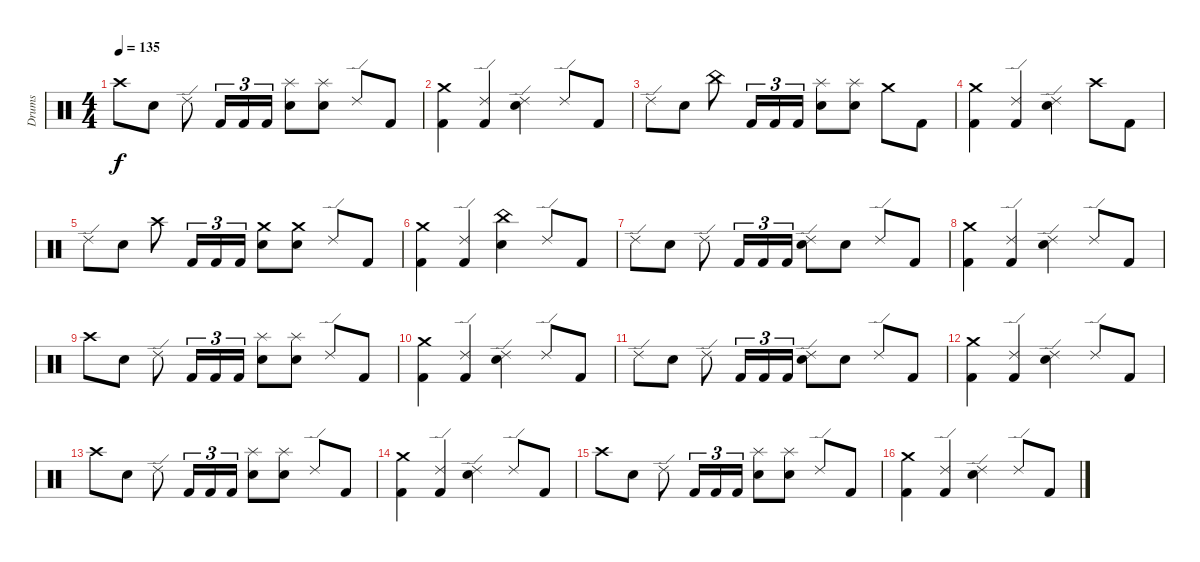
\track ("Drums" "Drums") {instrument percussion}
\staff {score}
\articulation defaults
\ts (4 4)
\tempo 135
\clef neutral
\ks c "Crash high (hit)".8{dy f} "Snare (hit) 2".8 "Ride (edge) 2".8 "Kick (hit) 2".16{tu (3 2)} "Kick (hit) 2".16{tu (3 2)} "Kick (hit) 2".16{tu (3 2)}
("Snare (hit) 2" "Splash (hit)").8 ("Snare (hit) 2" "Splash (hit)").8 "Ride (edge) 2".8 "Kick (hit) 2".8 |
("Kick (hit) 2" "Crash medium (hit)").4 ("Kick (hit) 2" "Ride (edge) 2").4 ("Snare (hit) 2" "Ride (edge) 2").4 "Ride (edge) 2".8 "Kick (hit) 2".8 |
"Ride (edge) 2".8 "Snare (hit) 2".8 "China (hit)".8 "Kick (hit) 2".16{tu (3 2)} "Kick (hit) 2".16{tu (3 2)} "Kick (hit) 2".16{tu (3 2)} ("Snare (hit) 2" "Splash (hit)").8 ("Snare (hit) 2" "Splash (hit)").8 "Crash medium (hit)".8 "Kick (hit) 2".8 |
("Kick (hit) 2" "Crash medium (hit)").4 ("Kick (hit) 2" "Ride (edge) 2").4 ("Snare (hit) 2" "Ride (edge) 2").4 "Crash high (hit)".8 "Kick (hit) 2".8 |
"Ride (edge) 2".8 "Snare (hit) 2".8 "Crash high (hit)".8 "Kick (hit) 2".16{tu (3 2)} "Kick (hit) 2".16{tu (3 2)} "Kick (hit) 2".16{tu (3 2)} ("Snare (hit) 2" "Crash medium (hit)").8 ("Snare (hit) 2" "Crash medium (hit)").8 "Ride (edge) 2".8 "Kick (hit) 2".8 |
("Kick (hit) 2" "Crash medium (hit)").4 ("Kick (hit) 2" "Ride (edge) 2").4 ("Snare (hit) 2" "China (hit)").4 "Ride (edge) 2".8 "Kick (hit) 2".8 |
"Ride (edge) 2".8 "Snare (hit) 2".8 "Ride (edge) 2".8 "Kick (hit) 2".16{tu (3 2)} "Kick (hit) 2".16{tu (3 2)} "Kick (hit) 2".16{tu (3 2)} ("Snare (hit) 2" "Ride (edge) 2").8 "Snare (hit) 2".8 "Ride (edge) 2".8 "Kick (hit) 2".8 |
("Kick (hit) 2" "Crash medium (hit)").4 ("Kick (hit) 2" "Ride (edge) 2").4 ("Snare (hit) 2" "Ride (edge) 2").4 "Ride (edge) 2".8 "Kick (hit) 2".8 |
"Crash high (hit)".8 "Snare (hit) 2".8 "Ride (edge) 2".8 "Kick (hit) 2".16{tu (3 2)} "Kick (hit) 2".16{tu (3 2)} "Kick (hit) 2".16{tu (3 2)} ("Snare (hit) 2" "Splash (hit)").8 ("Snare (hit) 2" "Splash (hit)").8 "Ride (edge) 2".8 "Kick (hit) 2".8 |
("Kick (hit) 2" "Crash medium (hit)").4 ("Kick (hit) 2" "Ride (edge) 2").4 ("Snare (hit) 2" "Ride (edge) 2").4 "Ride (edge) 2".8 "Kick (hit) 2".8 |
"Ride (edge) 2".8 "Snare (hit) 2".8 "Ride (edge) 2".8 "Kick (hit) 2".16{tu (3 2)} "Kick (hit) 2".16{tu (3 2)} "Kick (hit) 2".16{tu (3 2)} ("Snare (hit) 2" "Ride (edge) 2").8 "Snare (hit) 2".8 "Ride (edge) 2".8 "Kick (hit) 2".8 |
("Kick (hit) 2" "Crash medium (hit)").4 ("Kick (hit) 2" "Ride (edge) 2").4 ("Snare (hit) 2" "Ride (edge) 2").4 "Ride (edge) 2".8 "Kick (hit) 2".8 |
"Crash high (hit)".8 "Snare (hit) 2".8 "Ride (edge) 2".8 "Kick (hit) 2".16{tu (3 2)} "Kick (hit) 2".16{tu (3 2)} "Kick (hit) 2".16{tu (3 2)} ("Snare (hit) 2" "Splash (hit)").8 ("Snare (hit) 2" "Splash (hit)").8 "Ride (edge) 2".8 "Kick (hit) 2".8 |
("Kick (hit) 2" "Crash medium (hit)").4 ("Kick (hit) 2" "Ride (edge) 2").4 ("Snare (hit) 2" "Ride (edge) 2").4 "Ride (edge) 2".8 "Kick (hit) 2".8 |
"Crash high (hit)".8 "Snare (hit) 2".8 "Ride (edge) 2".8 "Kick (hit) 2".16{tu (3 2)} "Kick (hit) 2".16{tu (3 2)} "Kick (hit) 2".16{tu (3 2)} ("Snare (hit) 2" "Splash (hit)").8 ("Snare (hit) 2" "Splash (hit)").8 "Ride (edge) 2".8 "Kick (hit) 2".8 |
("Kick (hit) 2" "Crash medium (hit)").4 ("Kick (hit) 2" "Ride (edge) 2").4 ("Snare (hit) 2" "Ride (edge) 2").4 "Ride (edge) 2".8 "Kick (hit) 2".8
